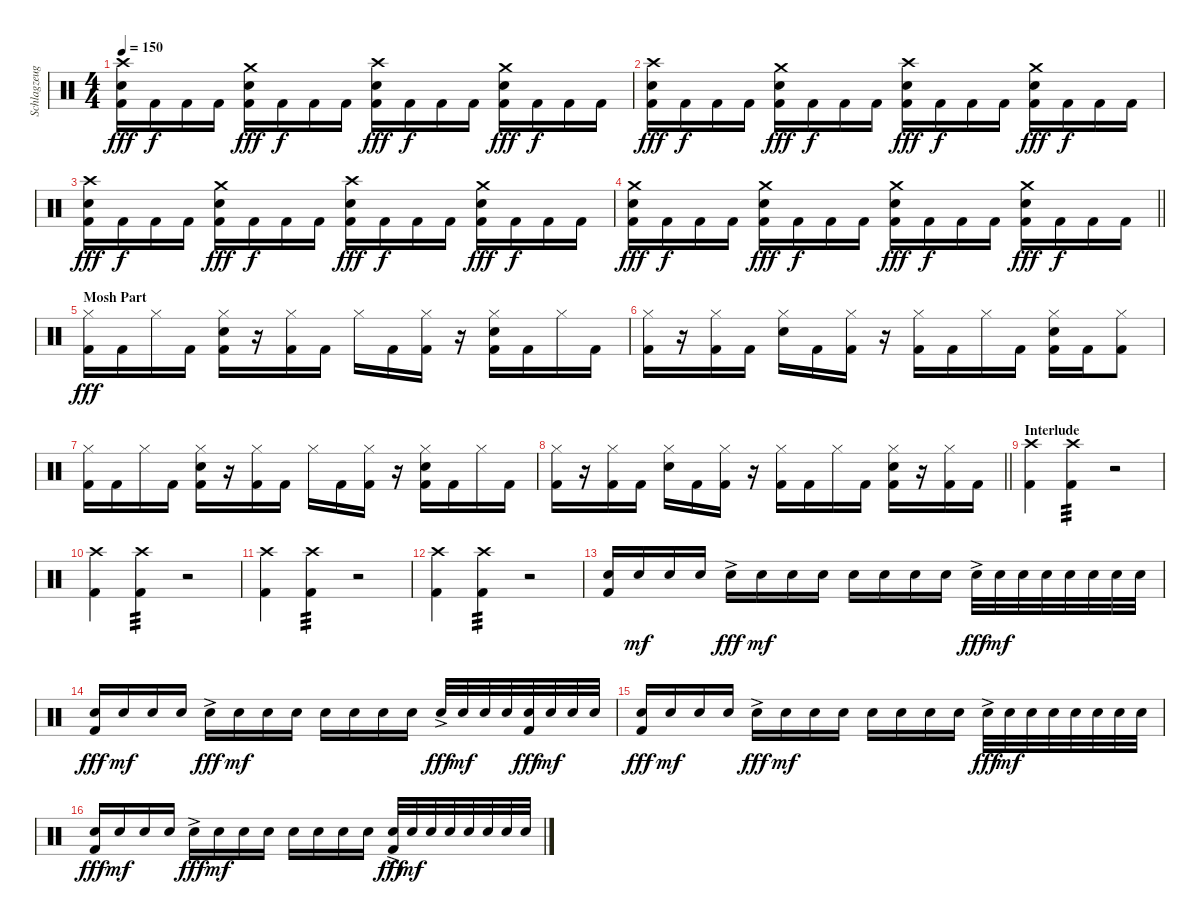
\track ("Schlagzeug" "Schlagzeug") {instrument percussion}
\staff {score}
\articulation defaults
\ts (4 4)
\tempo 150
\clef neutral
\ks c
("Crash high (hit)" "Snare (hit) 2" "Kick (hit) 2").16{dy fff} "Kick (hit) 2".16{dy f} "Kick (hit) 2".16 "Kick (hit) 2".16 ("Crash medium (hit)" "Snare (hit) 2" "Kick (hit) 2").16{dy fff} "Kick (hit) 2".16{dy f} "Kick (hit) 2".16 "Kick (hit) 2".16 ("Crash high (hit)" "Snare (hit) 2" "Kick (hit) 2").16{dy fff} "Kick (hit) 2".16{dy f} "Kick (hit) 2".16 "Kick (hit) 2".16 ("Crash medium (hit)" "Snare (hit) 2" "Kick (hit) 2").16{dy fff} "Kick (hit) 2".16{dy f} "Kick (hit) 2".16 "Kick (hit) 2".16 |
("Crash high (hit)" "Snare (hit) 2" "Kick (hit) 2").16{dy fff} "Kick (hit) 2".16{dy f} "Kick (hit) 2".16 "Kick (hit) 2".16 ("Crash medium (hit)" "Snare (hit) 2" "Kick (hit) 2").16{dy fff} "Kick (hit) 2".16{dy f} "Kick (hit) 2".16 "Kick (hit) 2".16 ("Crash high (hit)" "Snare (hit) 2" "Kick (hit) 2").16{dy fff} "Kick (hit) 2".16{dy f} "Kick (hit) 2".16 "Kick (hit) 2".16 ("Crash medium (hit)" "Snare (hit) 2" "Kick (hit) 2").16{dy fff} "Kick (hit) 2".16{dy f} "Kick (hit) 2".16 "Kick (hit) 2".16 |
("Crash high (hit)" "Snare (hit) 2" "Kick (hit) 2").16{dy fff} "Kick (hit) 2".16{dy f} "Kick (hit) 2".16 "Kick (hit) 2".16 ("Crash medium (hit)" "Snare (hit) 2" "Kick (hit) 2").16{dy fff} "Kick (hit) 2".16{dy f} "Kick (hit) 2".16 "Kick (hit) 2".16 ("Crash high (hit)" "Snare (hit) 2" "Kick (hit) 2").16{dy fff} "Kick (hit) 2".16{dy f} "Kick (hit) 2".16 "Kick (hit) 2".16 ("Crash medium (hit)" "Snare (hit) 2" "Kick (hit) 2").16{dy fff} "Kick (hit) 2".16{dy f} "Kick (hit) 2".16 "Kick (hit) 2".16 |
\barLineRight lightlight
("Crash medium (hit)" "Snare (hit) 2" "Kick (hit) 2").16{dy fff} "Kick (hit) 2".16{dy f} "Kick (hit) 2".16 "Kick (hit) 2".16 ("Crash medium (hit)" "Snare (hit) 2" "Kick (hit) 2").16{dy fff} "Kick (hit) 2".16{dy f} "Kick (hit) 2".16 "Kick (hit) 2".16 ("Crash medium (hit)" "Snare (hit) 2" "Kick (hit) 2").16{dy fff} "Kick (hit) 2".16{dy f} "Kick (hit) 2".16 "Kick (hit) 2".16 ("Crash medium (hit)" "Snare (hit) 2" "Kick (hit) 2").16{dy fff} "Kick (hit) 2".16{dy f} "Kick (hit) 2".16 "Kick (hit) 2".16 |
\section ("" "Mosh Part")
("Hi-Hat (closed)" "Kick (hit) 2").16{dy fff} "Kick (hit) 2".16 "Hi-Hat (closed)".16 "Kick (hit) 2".16 ("Hi-Hat (closed)" "Snare (hit) 2" "Kick (hit) 2").16 r.16 ("Hi-Hat (closed)" "Kick (hit) 2").16 "Kick (hit) 2".16 "Hi-Hat (closed)".16 "Kick (hit) 2".16 ("Hi-Hat (closed)" "Kick (hit) 2").16 r.16 ("Snare (hit) 2" "Hi-Hat (closed)" "Kick (hit) 2").16 "Kick (hit) 2".16 "Hi-Hat (closed)".16 "Kick (hit) 2".16 |
("Hi-Hat (closed)" "Kick (hit) 2").16 r.16 ("Hi-Hat (closed)" "Kick (hit) 2").16 "Kick (hit) 2".16 ("Snare (hit) 2" "Hi-Hat (closed)").16 "Kick (hit) 2".16 ("Hi-Hat (closed)" "Kick (hit) 2").16 r.16 ("Hi-Hat (closed)" "Kick (hit) 2").16 "Kick (hit) 2".16 "Hi-Hat (closed)".16 "Kick (hit) 2".16 ("Snare (hit) 2" "Hi-Hat (closed)" "Kick (hit) 2").16 "Kick (hit) 2".16 ("Hi-Hat (closed)" "Kick (hit) 2").8 |
("Hi-Hat (closed)" "Kick (hit) 2").16 "Kick (hit) 2".16 "Hi-Hat (closed)".16 "Kick (hit) 2".16 ("Hi-Hat (closed)" "Snare (hit) 2" "Kick (hit) 2").16 r.16 ("Hi-Hat (closed)" "Kick (hit) 2").16 "Kick (hit) 2".16 "Hi-Hat (closed)".16 "Kick (hit) 2".16 ("Hi-Hat (closed)" "Kick (hit) 2").16 r.16 ("Snare (hit) 2" "Hi-Hat (closed)" "Kick (hit) 2").16 "Kick (hit) 2".16 "Hi-Hat (closed)".16 "Kick (hit) 2".16 |
\barLineRight lightlight
("Hi-Hat (closed)" "Kick (hit) 2").16 r.16 ("Hi-Hat (closed)" "Kick (hit) 2").16 "Kick (hit) 2".16 ("Snare (hit) 2" "Hi-Hat (closed)").16 "Kick (hit) 2".16 ("Hi-Hat (closed)" "Kick (hit) 2").16 r.16 ("Hi-Hat (closed)" "Kick (hit) 2").16 "Kick (hit) 2".16 "Hi-Hat (closed)".16 "Kick (hit) 2".16 ("Snare (hit) 2" "Hi-Hat (closed)" "Kick (hit) 2").16 r.16 ("Hi-Hat (closed)" "Kick (hit) 2").16 "Kick (hit) 2".16 |
\section ("" "Interlude")
("Crash high (hit)" "Kick (hit) 2").4 ("Crash high (hit)" "Kick (hit) 2").4{tp 3} r.2 |
("Crash high (hit)" "Kick (hit) 2").4 ("Crash high (hit)" "Kick (hit) 2").4{tp 3} r.2 |
("Crash high (hit)" "Kick (hit) 2").4 ("Crash high (hit)" "Kick (hit) 2").4{tp 3} r.2 |
("Crash high (hit)" "Kick (hit) 2").4 ("Crash high (hit)" "Kick (hit) 2").4{tp 3} r.2 |
("Snare (hit) 2" "Kick (hit) 2").16 "Snare (hit) 2".16{dy mf} "Snare (hit) 2".16 "Snare (hit) 2".16 "Snare (hit) 2"{ac}.16{dy fff} "Snare (hit) 2".16{dy mf} "Snare (hit) 2".16 "Snare (hit) 2".16 "Snare (hit) 2".16 "Snare (hit) 2".16 "Snare (hit) 2".16 "Snare (hit) 2".16 "Snare (hit) 2"{ac}.32{dy fff} "Snare (hit) 2".32{dy mf} "Snare (hit) 2".32 "Snare (hit) 2".32 "Snare (hit) 2".32 "Snare (hit) 2".32 "Snare (hit) 2".32 "Snare (hit) 2".32 |
("Snare (hit) 2" "Kick (hit) 2").16{dy fff} "Snare (hit) 2".16{dy mf} "Snare (hit) 2".16 "Snare (hit) 2".16 "Snare (hit) 2"{ac}.16{dy fff} "Snare (hit) 2".16{dy mf} "Snare (hit) 2".16 "Snare (hit) 2".16 "Snare (hit) 2".16 "Snare (hit) 2".16 "Snare (hit) 2".16 "Snare (hit) 2".16 "Snare (hit) 2"{ac}.32{dy fff} "Snare (hit) 2".32{dy mf} "Snare (hit) 2".32 "Snare (hit) 2".32 ("Snare (hit) 2" "Kick (hit) 2").32{dy fff} "Snare (hit) 2".32{dy mf} "Snare (hit) 2".32 "Snare (hit) 2".32 |
("Snare (hit) 2" "Kick (hit) 2").16{dy fff} "Snare (hit) 2".16{dy mf} "Snare (hit) 2".16 "Snare (hit) 2".16 "Snare (hit) 2"{ac}.16{dy fff} "Snare (hit) 2".16{dy mf} "Snare (hit) 2".16 "Snare (hit) 2".16 "Snare (hit) 2".16 "Snare (hit) 2".16 "Snare (hit) 2".16 "Snare (hit) 2".16 "Snare (hit) 2"{ac}.32{dy fff} "Snare (hit) 2".32{dy mf} "Snare (hit) 2".32 "Snare (hit) 2".32 "Snare (hit) 2".32 "Snare (hit) 2".32 "Snare (hit) 2".32 "Snare (hit) 2".32 |
("Snare (hit) 2" "Kick (hit) 2").16{dy fff} "Snare (hit) 2".16{dy mf} "Snare (hit) 2".16 "Snare (hit) 2".16 "Snare (hit) 2"{ac}.16{dy fff} "Snare (hit) 2".16{dy mf} "Snare (hit) 2".16 "Snare (hit) 2".16 "Snare (hit) 2".16 "Snare (hit) 2".16 "Snare (hit) 2".16 "Snare (hit) 2".16 ("Snare (hit) 2"{ac} "Kick (hit) 2").32{dy fff} "Snare (hit) 2".32{dy mf} "Snare (hit) 2".32 "Snare (hit) 2".32 "Snare (hit) 2".32 "Snare (hit) 2".32 "Snare (hit) 2".32 "Snare (hit) 2".32
